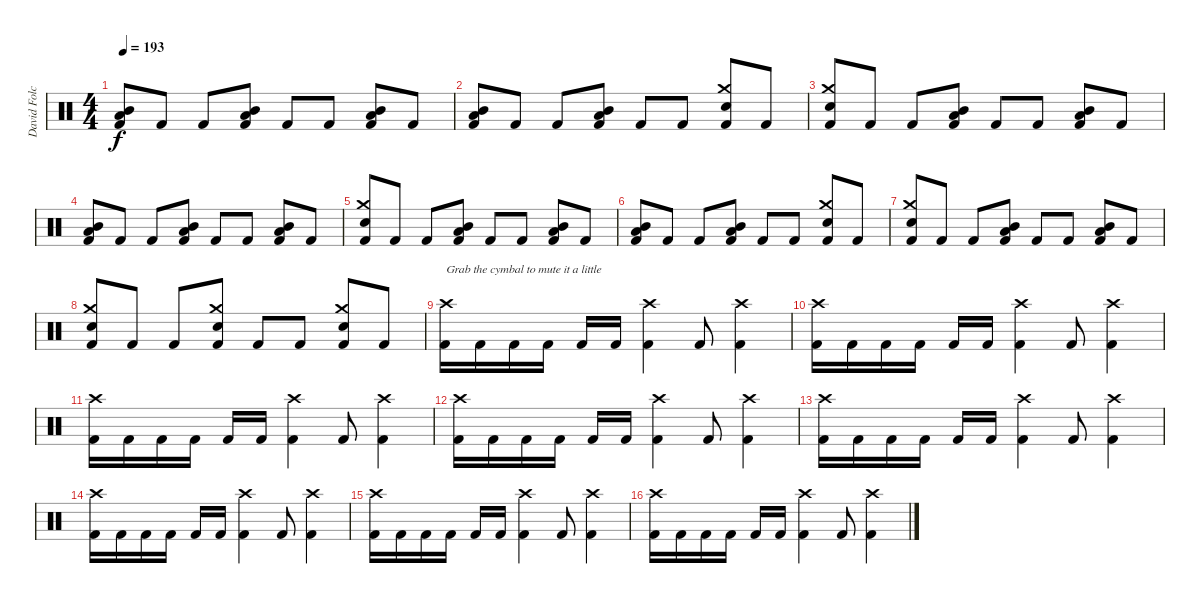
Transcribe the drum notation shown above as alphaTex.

\track ("David Folchitto (Drums)" "David Folc") {instrument percussion}
\staff {score}
\articulation defaults
\ts (4 4)
\tempo 193
\clef neutral
\ks c
("Mid Tom (hit)" "Low Tom (hit)" "Kick (hit) 2").8{dy f} "Kick (hit) 2".8 "Kick (hit) 2".8 ("Mid Tom (hit)" "Low Tom (hit)" "Kick (hit) 2").8 "Kick (hit) 2".8 "Kick (hit) 2".8 ("Mid Tom (hit)" "Low Tom (hit)" "Kick (hit) 2").8 "Kick (hit) 2".8 |
("Mid Tom (hit)" "Low Tom (hit)" "Kick (hit) 2").8 "Kick (hit) 2".8 "Kick (hit) 2".8 ("Mid Tom (hit)" "Low Tom (hit)" "Kick (hit) 2").8 "Kick (hit) 2".8 "Kick (hit) 2".8 ("Crash medium (hit)" "Snare (hit) 2" "Kick (hit) 2").8 "Kick (hit) 2".8 |
("Crash medium (hit)" "Snare (hit) 2" "Kick (hit) 2").8 "Kick (hit) 2".8 "Kick (hit) 2".8 ("Mid Tom (hit)" "Low Tom (hit)" "Kick (hit) 2").8 "Kick (hit) 2".8 "Kick (hit) 2".8 ("Mid Tom (hit)" "Low Tom (hit)" "Kick (hit) 2").8 "Kick (hit) 2".8 |
("Mid Tom (hit)" "Low Tom (hit)" "Kick (hit) 2").8 "Kick (hit) 2".8 "Kick (hit) 2".8 ("Mid Tom (hit)" "Low Tom (hit)" "Kick (hit) 2").8 "Kick (hit) 2".8 "Kick (hit) 2".8 ("Mid Tom (hit)" "Low Tom (hit)" "Kick (hit) 2").8 "Kick (hit) 2".8 |
("Crash medium (hit)" "Snare (hit) 2" "Kick (hit) 2").8 "Kick (hit) 2".8 "Kick (hit) 2".8 ("Mid Tom (hit)" "Low Tom (hit)" "Kick (hit) 2").8 "Kick (hit) 2".8 "Kick (hit) 2".8 ("Mid Tom (hit)" "Low Tom (hit)" "Kick (hit) 2").8 "Kick (hit) 2".8 |
("Mid Tom (hit)" "Low Tom (hit)" "Kick (hit) 2").8 "Kick (hit) 2".8 "Kick (hit) 2".8 ("Mid Tom (hit)" "Low Tom (hit)" "Kick (hit) 2").8 "Kick (hit) 2".8 "Kick (hit) 2".8 ("Crash medium (hit)" "Snare (hit) 2" "Kick (hit) 2").8 "Kick (hit) 2".8 |
("Crash medium (hit)" "Snare (hit) 2" "Kick (hit) 2").8 "Kick (hit) 2".8 "Kick (hit) 2".8 ("Mid Tom (hit)" "Low Tom (hit)" "Kick (hit) 2").8 "Kick (hit) 2".8 "Kick (hit) 2".8 ("Mid Tom (hit)" "Low Tom (hit)" "Kick (hit) 2").8 "Kick (hit) 2".8 |
("Crash medium (hit)" "Snare (hit) 2" "Kick (hit) 2").8 "Kick (hit) 2".8 "Kick (hit) 2".8 ("Crash medium (hit)" "Snare (hit) 2" "Kick (hit) 2").8 "Kick (hit) 2".8 "Kick (hit) 2".8 ("Crash medium (hit)" "Snare (hit) 2" "Kick (hit) 2").8 "Kick (hit) 2".8 |
("Crash high (hit)" "Kick (hit) 2").16{txt "Grab the cymbal to mute it a little"} "Kick (hit) 2".16 "Kick (hit) 2".16 "Kick (hit) 2".16 "Kick (hit) 2".16 "Kick (hit) 2".16 ("Crash high (hit)" "Kick (hit) 2").4 "Kick (hit) 2".8 ("Crash high (hit)" "Kick (hit) 2").4 |
("Crash high (hit)" "Kick (hit) 2").16 "Kick (hit) 2".16 "Kick (hit) 2".16 "Kick (hit) 2".16 "Kick (hit) 2".16 "Kick (hit) 2".16 ("Crash high (hit)" "Kick (hit) 2").4 "Kick (hit) 2".8 ("Crash high (hit)" "Kick (hit) 2").4 |
("Crash high (hit)" "Kick (hit) 2").16 "Kick (hit) 2".16 "Kick (hit) 2".16 "Kick (hit) 2".16 "Kick (hit) 2".16 "Kick (hit) 2".16 ("Crash high (hit)" "Kick (hit) 2").4 "Kick (hit) 2".8 ("Crash high (hit)" "Kick (hit) 2").4 |
("Crash high (hit)" "Kick (hit) 2").16 "Kick (hit) 2".16 "Kick (hit) 2".16 "Kick (hit) 2".16 "Kick (hit) 2".16 "Kick (hit) 2".16 ("Crash high (hit)" "Kick (hit) 2").4 "Kick (hit) 2".8 ("Crash high (hit)" "Kick (hit) 2").4 |
("Crash high (hit)" "Kick (hit) 2").16 "Kick (hit) 2".16 "Kick (hit) 2".16 "Kick (hit) 2".16 "Kick (hit) 2".16 "Kick (hit) 2".16 ("Crash high (hit)" "Kick (hit) 2").4 "Kick (hit) 2".8 ("Crash high (hit)" "Kick (hit) 2").4 |
("Crash high (hit)" "Kick (hit) 2").16 "Kick (hit) 2".16 "Kick (hit) 2".16 "Kick (hit) 2".16 "Kick (hit) 2".16 "Kick (hit) 2".16 ("Crash high (hit)" "Kick (hit) 2").4 "Kick (hit) 2".8 ("Crash high (hit)" "Kick (hit) 2").4 |
("Crash high (hit)" "Kick (hit) 2").16 "Kick (hit) 2".16 "Kick (hit) 2".16 "Kick (hit) 2".16 "Kick (hit) 2".16 "Kick (hit) 2".16 ("Crash high (hit)" "Kick (hit) 2").4 "Kick (hit) 2".8 ("Crash high (hit)" "Kick (hit) 2").4 |
("Crash high (hit)" "Kick (hit) 2").16 "Kick (hit) 2".16 "Kick (hit) 2".16 "Kick (hit) 2".16 "Kick (hit) 2".16 "Kick (hit) 2".16 ("Crash high (hit)" "Kick (hit) 2").4 "Kick (hit) 2".8 ("Crash high (hit)" "Kick (hit) 2").4
